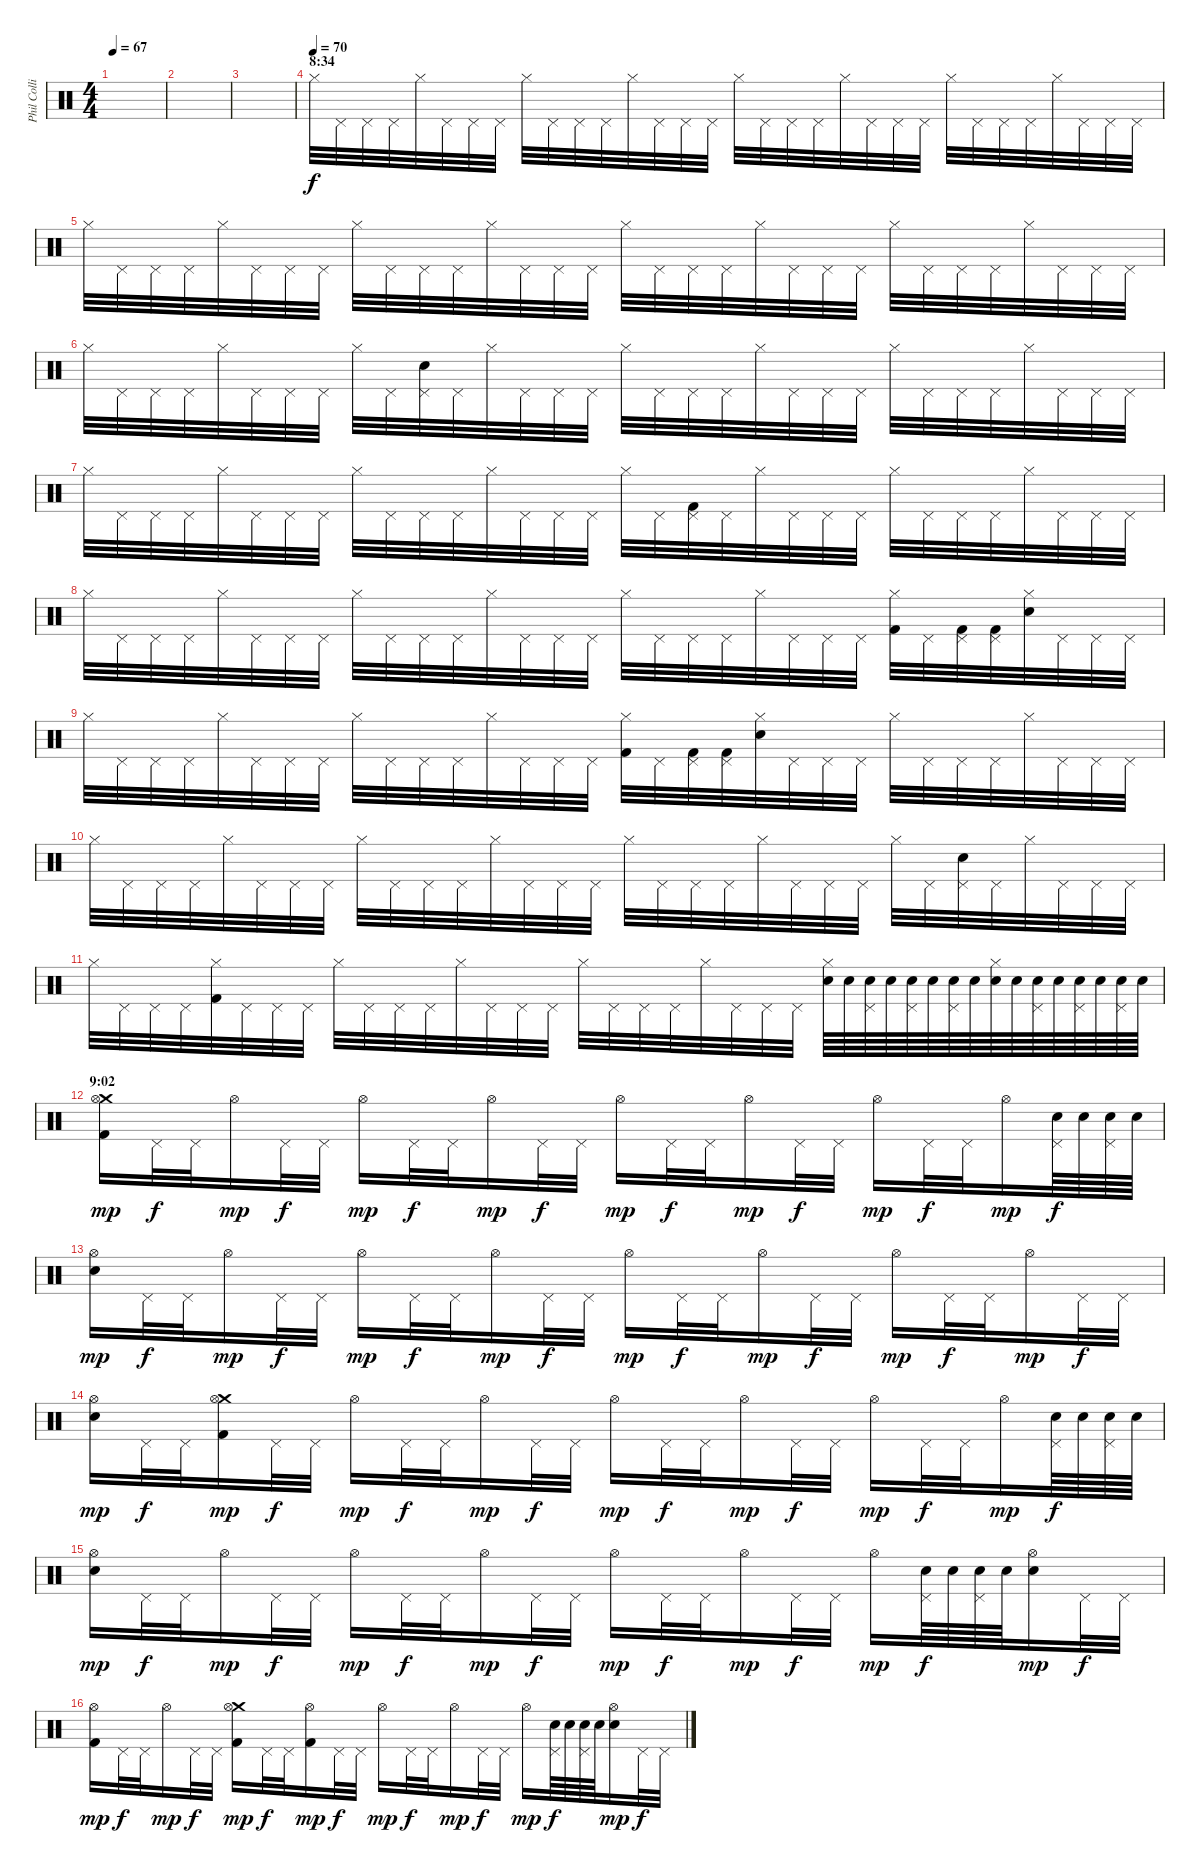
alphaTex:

\track ("Phil Collins (drums)" "Phil Colli") {instrument percussion}
\staff {score}
\articulation defaults
\ts (4 4)
\tempo 67
\clef neutral
\ks c
|
|
|
\section ("" "8:34")
\tempo (70)
"Hi-Hat (closed)".32{volume 13} "Pedal Hi-Hat (hit)".32 "Pedal Hi-Hat (hit)".32 "Pedal Hi-Hat (hit)".32 "Hi-Hat (closed)".32 "Pedal Hi-Hat (hit)".32 "Pedal Hi-Hat (hit)".32 "Pedal Hi-Hat (hit)".32 "Hi-Hat (closed)".32 "Pedal Hi-Hat (hit)".32 "Pedal Hi-Hat (hit)".32 "Pedal Hi-Hat (hit)".32 "Hi-Hat (closed)".32 "Pedal Hi-Hat (hit)".32 "Pedal Hi-Hat (hit)".32 "Pedal Hi-Hat (hit)".32 "Hi-Hat (closed)".32 "Pedal Hi-Hat (hit)".32 "Pedal Hi-Hat (hit)".32 "Pedal Hi-Hat (hit)".32 "Hi-Hat (closed)".32 "Pedal Hi-Hat (hit)".32 "Pedal Hi-Hat (hit)".32 "Pedal Hi-Hat (hit)".32 "Hi-Hat (closed)".32 "Pedal Hi-Hat (hit)".32 "Pedal Hi-Hat (hit)".32 "Pedal Hi-Hat (hit)".32 "Hi-Hat (closed)".32 "Pedal Hi-Hat (hit)".32 "Pedal Hi-Hat (hit)".32 "Pedal Hi-Hat (hit)".32 |
"Hi-Hat (closed)".32 "Pedal Hi-Hat (hit)".32 "Pedal Hi-Hat (hit)".32 "Pedal Hi-Hat (hit)".32 "Hi-Hat (closed)".32 "Pedal Hi-Hat (hit)".32 "Pedal Hi-Hat (hit)".32 "Pedal Hi-Hat (hit)".32 "Hi-Hat (closed)".32 "Pedal Hi-Hat (hit)".32 "Pedal Hi-Hat (hit)".32 "Pedal Hi-Hat (hit)".32 "Hi-Hat (closed)".32 "Pedal Hi-Hat (hit)".32 "Pedal Hi-Hat (hit)".32 "Pedal Hi-Hat (hit)".32 "Hi-Hat (closed)".32 "Pedal Hi-Hat (hit)".32 "Pedal Hi-Hat (hit)".32 "Pedal Hi-Hat (hit)".32 "Hi-Hat (closed)".32 "Pedal Hi-Hat (hit)".32 "Pedal Hi-Hat (hit)".32 "Pedal Hi-Hat (hit)".32 "Hi-Hat (closed)".32 "Pedal Hi-Hat (hit)".32 "Pedal Hi-Hat (hit)".32 "Pedal Hi-Hat (hit)".32 "Hi-Hat (closed)".32 "Pedal Hi-Hat (hit)".32 "Pedal Hi-Hat (hit)".32 "Pedal Hi-Hat (hit)".32 |
"Hi-Hat (closed)".32 "Pedal Hi-Hat (hit)".32 "Pedal Hi-Hat (hit)".32 "Pedal Hi-Hat (hit)".32 "Hi-Hat (closed)".32 "Pedal Hi-Hat (hit)".32 "Pedal Hi-Hat (hit)".32 "Pedal Hi-Hat (hit)".32 "Hi-Hat (closed)".32 "Pedal Hi-Hat (hit)".32 ("Electric Snare (hit)" "Pedal Hi-Hat (hit)").32 "Pedal Hi-Hat (hit)".32 "Hi-Hat (closed)".32 "Pedal Hi-Hat (hit)".32 "Pedal Hi-Hat (hit)".32 "Pedal Hi-Hat (hit)".32 "Hi-Hat (closed)".32 "Pedal Hi-Hat (hit)".32 "Pedal Hi-Hat (hit)".32 "Pedal Hi-Hat (hit)".32 "Hi-Hat (closed)".32 "Pedal Hi-Hat (hit)".32 "Pedal Hi-Hat (hit)".32 "Pedal Hi-Hat (hit)".32 "Hi-Hat (closed)".32 "Pedal Hi-Hat (hit)".32 "Pedal Hi-Hat (hit)".32 "Pedal Hi-Hat (hit)".32 "Hi-Hat (closed)".32 "Pedal Hi-Hat (hit)".32 "Pedal Hi-Hat (hit)".32 "Pedal Hi-Hat (hit)".32 |
"Hi-Hat (closed)".32 "Pedal Hi-Hat (hit)".32 "Pedal Hi-Hat (hit)".32 "Pedal Hi-Hat (hit)".32 "Hi-Hat (closed)".32 "Pedal Hi-Hat (hit)".32 "Pedal Hi-Hat (hit)".32 "Pedal Hi-Hat (hit)".32 "Hi-Hat (closed)".32 "Pedal Hi-Hat (hit)".32 "Pedal Hi-Hat (hit)".32 "Pedal Hi-Hat (hit)".32 "Hi-Hat (closed)".32 "Pedal Hi-Hat (hit)".32 "Pedal Hi-Hat (hit)".32 "Pedal Hi-Hat (hit)".32 "Hi-Hat (closed)".32 "Pedal Hi-Hat (hit)".32 ("Kick (hit) 2" "Pedal Hi-Hat (hit)").32 "Pedal Hi-Hat (hit)".32 "Hi-Hat (closed)".32 "Pedal Hi-Hat (hit)".32 "Pedal Hi-Hat (hit)".32 "Pedal Hi-Hat (hit)".32 "Hi-Hat (closed)".32 "Pedal Hi-Hat (hit)".32 "Pedal Hi-Hat (hit)".32 "Pedal Hi-Hat (hit)".32 "Hi-Hat (closed)".32 "Pedal Hi-Hat (hit)".32 "Pedal Hi-Hat (hit)".32 "Pedal Hi-Hat (hit)".32 |
"Hi-Hat (closed)".32 "Pedal Hi-Hat (hit)".32 "Pedal Hi-Hat (hit)".32 "Pedal Hi-Hat (hit)".32 "Hi-Hat (closed)".32 "Pedal Hi-Hat (hit)".32 "Pedal Hi-Hat (hit)".32 "Pedal Hi-Hat (hit)".32 "Hi-Hat (closed)".32 "Pedal Hi-Hat (hit)".32 "Pedal Hi-Hat (hit)".32 "Pedal Hi-Hat (hit)".32 "Hi-Hat (closed)".32 "Pedal Hi-Hat (hit)".32 "Pedal Hi-Hat (hit)".32 "Pedal Hi-Hat (hit)".32 "Hi-Hat (closed)".32 "Pedal Hi-Hat (hit)".32 "Pedal Hi-Hat (hit)".32 "Pedal Hi-Hat (hit)".32 "Hi-Hat (closed)".32 "Pedal Hi-Hat (hit)".32 "Pedal Hi-Hat (hit)".32 "Pedal Hi-Hat (hit)".32 ("Kick (hit) 2" "Hi-Hat (closed)").32 "Pedal Hi-Hat (hit)".32 ("Kick (hit) 2" "Pedal Hi-Hat (hit)").32 ("Kick (hit) 2" "Pedal Hi-Hat (hit)").32 ("Electric Snare (hit)" "Hi-Hat (closed)").32 "Pedal Hi-Hat (hit)".32 "Pedal Hi-Hat (hit)".32 "Pedal Hi-Hat (hit)".32 |
"Hi-Hat (closed)".32 "Pedal Hi-Hat (hit)".32 "Pedal Hi-Hat (hit)".32 "Pedal Hi-Hat (hit)".32 "Hi-Hat (closed)".32 "Pedal Hi-Hat (hit)".32 "Pedal Hi-Hat (hit)".32 "Pedal Hi-Hat (hit)".32 "Hi-Hat (closed)".32 "Pedal Hi-Hat (hit)".32 "Pedal Hi-Hat (hit)".32 "Pedal Hi-Hat (hit)".32 "Hi-Hat (closed)".32 "Pedal Hi-Hat (hit)".32 "Pedal Hi-Hat (hit)".32 "Pedal Hi-Hat (hit)".32 ("Kick (hit) 2" "Hi-Hat (closed)").32 "Pedal Hi-Hat (hit)".32 ("Kick (hit) 2" "Pedal Hi-Hat (hit)").32 ("Kick (hit) 2" "Pedal Hi-Hat (hit)").32 ("Electric Snare (hit)" "Hi-Hat (closed)").32 "Pedal Hi-Hat (hit)".32 "Pedal Hi-Hat (hit)".32 "Pedal Hi-Hat (hit)".32 "Hi-Hat (closed)".32 "Pedal Hi-Hat (hit)".32 "Pedal Hi-Hat (hit)".32 "Pedal Hi-Hat (hit)".32 "Hi-Hat (closed)".32 "Pedal Hi-Hat (hit)".32 "Pedal Hi-Hat (hit)".32 "Pedal Hi-Hat (hit)".32 |
"Hi-Hat (closed)".32 "Pedal Hi-Hat (hit)".32 "Pedal Hi-Hat (hit)".32 "Pedal Hi-Hat (hit)".32 "Hi-Hat (closed)".32 "Pedal Hi-Hat (hit)".32 "Pedal Hi-Hat (hit)".32 "Pedal Hi-Hat (hit)".32 "Hi-Hat (closed)".32 "Pedal Hi-Hat (hit)".32 "Pedal Hi-Hat (hit)".32 "Pedal Hi-Hat (hit)".32 "Hi-Hat (closed)".32 "Pedal Hi-Hat (hit)".32 "Pedal Hi-Hat (hit)".32 "Pedal Hi-Hat (hit)".32 "Hi-Hat (closed)".32 "Pedal Hi-Hat (hit)".32 "Pedal Hi-Hat (hit)".32 "Pedal Hi-Hat (hit)".32 "Hi-Hat (closed)".32 "Pedal Hi-Hat (hit)".32 "Pedal Hi-Hat (hit)".32 "Pedal Hi-Hat (hit)".32 "Hi-Hat (closed)".32 "Pedal Hi-Hat (hit)".32 ("Electric Snare (hit)" "Pedal Hi-Hat (hit)").32 "Pedal Hi-Hat (hit)".32 "Hi-Hat (closed)".32 "Pedal Hi-Hat (hit)".32 "Pedal Hi-Hat (hit)".32 "Pedal Hi-Hat (hit)".32 |
"Hi-Hat (closed)".32 "Pedal Hi-Hat (hit)".32 "Pedal Hi-Hat (hit)".32 "Pedal Hi-Hat (hit)".32 ("Kick (hit) 2" "Hi-Hat (closed)").32 "Pedal Hi-Hat (hit)".32 "Pedal Hi-Hat (hit)".32 "Pedal Hi-Hat (hit)".32 "Hi-Hat (closed)".32 "Pedal Hi-Hat (hit)".32 "Pedal Hi-Hat (hit)".32 "Pedal Hi-Hat (hit)".32 "Hi-Hat (closed)".32 "Pedal Hi-Hat (hit)".32 "Pedal Hi-Hat (hit)".32 "Pedal Hi-Hat (hit)".32 "Hi-Hat (closed)".32 "Pedal Hi-Hat (hit)".32 "Pedal Hi-Hat (hit)".32 "Pedal Hi-Hat (hit)".32 "Hi-Hat (closed)".32 "Pedal Hi-Hat (hit)".32 "Pedal Hi-Hat (hit)".32 "Pedal Hi-Hat (hit)".32 ("Electric Snare (hit)" "Hi-Hat (closed)").64 "Electric Snare (hit)".64 ("Electric Snare (hit)" "Pedal Hi-Hat (hit)").64 "Electric Snare (hit)".64 ("Electric Snare (hit)" "Pedal Hi-Hat (hit)").64 "Electric Snare (hit)".64 ("Electric Snare (hit)" "Pedal Hi-Hat (hit)").64 "Electric Snare (hit)".64 ("Electric Snare (hit)" "Hi-Hat (closed)").64 "Electric Snare (hit)".64 ("Electric Snare (hit)" "Pedal Hi-Hat (hit)").64 "Electric Snare (hit)".64 ("Electric Snare (hit)" "Pedal Hi-Hat (hit)").64 "Electric Snare (hit)".64 ("Electric Snare (hit)" "Pedal Hi-Hat (hit)").64 "Electric Snare (hit)".64 |
\section ("" "9:02")
("Crash medium (hit)" "Kick (hit) 2" "Hi-Hat (open)").16{dy mp} "Pedal Hi-Hat (hit)".32{dy f} "Pedal Hi-Hat (hit)".32 "Hi-Hat (open)".16{dy mp} "Pedal Hi-Hat (hit)".32{dy f} "Pedal Hi-Hat (hit)".32 "Hi-Hat (open)".16{dy mp} "Pedal Hi-Hat (hit)".32{dy f} "Pedal Hi-Hat (hit)".32 "Hi-Hat (open)".16{dy mp} "Pedal Hi-Hat (hit)".32{dy f} "Pedal Hi-Hat (hit)".32 "Hi-Hat (open)".16{dy mp} "Pedal Hi-Hat (hit)".32{dy f} "Pedal Hi-Hat (hit)".32 "Hi-Hat (open)".16{dy mp} "Pedal Hi-Hat (hit)".32{dy f} "Pedal Hi-Hat (hit)".32 "Hi-Hat (open)".16{dy mp} "Pedal Hi-Hat (hit)".32{dy f} "Pedal Hi-Hat (hit)".32 "Hi-Hat (open)".16{dy mp} ("Electric Snare (hit)" "Pedal Hi-Hat (hit)").64{dy f} "Electric Snare (hit)".64 ("Electric Snare (hit)" "Pedal Hi-Hat (hit)").64 "Electric Snare (hit)".64 |
("Electric Snare (hit)" "Hi-Hat (open)").16{dy mp} "Pedal Hi-Hat (hit)".32{dy f} "Pedal Hi-Hat (hit)".32 "Hi-Hat (open)".16{dy mp} "Pedal Hi-Hat (hit)".32{dy f} "Pedal Hi-Hat (hit)".32 "Hi-Hat (open)".16{dy mp} "Pedal Hi-Hat (hit)".32{dy f} "Pedal Hi-Hat (hit)".32 "Hi-Hat (open)".16{dy mp} "Pedal Hi-Hat (hit)".32{dy f} "Pedal Hi-Hat (hit)".32 "Hi-Hat (open)".16{dy mp} "Pedal Hi-Hat (hit)".32{dy f} "Pedal Hi-Hat (hit)".32 "Hi-Hat (open)".16{dy mp} "Pedal Hi-Hat (hit)".32{dy f} "Pedal Hi-Hat (hit)".32 "Hi-Hat (open)".16{dy mp} "Pedal Hi-Hat (hit)".32{dy f} "Pedal Hi-Hat (hit)".32 "Hi-Hat (open)".16{dy mp} "Pedal Hi-Hat (hit)".32{dy f} "Pedal Hi-Hat (hit)".32 |
("Electric Snare (hit)" "Hi-Hat (open)").16{dy mp} "Pedal Hi-Hat (hit)".32{dy f} "Pedal Hi-Hat (hit)".32 ("Crash medium (hit)" "Hi-Hat (open)" "Kick (hit) 2").16{dy mp} "Pedal Hi-Hat (hit)".32{dy f} "Pedal Hi-Hat (hit)".32 "Hi-Hat (open)".16{dy mp} "Pedal Hi-Hat (hit)".32{dy f} "Pedal Hi-Hat (hit)".32 "Hi-Hat (open)".16{dy mp} "Pedal Hi-Hat (hit)".32{dy f} "Pedal Hi-Hat (hit)".32 "Hi-Hat (open)".16{dy mp} "Pedal Hi-Hat (hit)".32{dy f} "Pedal Hi-Hat (hit)".32 "Hi-Hat (open)".16{dy mp} "Pedal Hi-Hat (hit)".32{dy f} "Pedal Hi-Hat (hit)".32 "Hi-Hat (open)".16{dy mp} "Pedal Hi-Hat (hit)".32{dy f} "Pedal Hi-Hat (hit)".32 "Hi-Hat (open)".16{dy mp} ("Electric Snare (hit)" "Pedal Hi-Hat (hit)").64{dy f} "Electric Snare (hit)".64 ("Electric Snare (hit)" "Pedal Hi-Hat (hit)").64 "Electric Snare (hit)".64 |
("Electric Snare (hit)" "Hi-Hat (open)").16{dy mp} "Pedal Hi-Hat (hit)".32{dy f} "Pedal Hi-Hat (hit)".32 "Hi-Hat (open)".16{dy mp} "Pedal Hi-Hat (hit)".32{dy f} "Pedal Hi-Hat (hit)".32 "Hi-Hat (open)".16{dy mp} "Pedal Hi-Hat (hit)".32{dy f} "Pedal Hi-Hat (hit)".32 "Hi-Hat (open)".16{dy mp} "Pedal Hi-Hat (hit)".32{dy f} "Pedal Hi-Hat (hit)".32 "Hi-Hat (open)".16{dy mp} "Pedal Hi-Hat (hit)".32{dy f} "Pedal Hi-Hat (hit)".32 "Hi-Hat (open)".16{dy mp} "Pedal Hi-Hat (hit)".32{dy f} "Pedal Hi-Hat (hit)".32 "Hi-Hat (open)".16{dy mp} ("Electric Snare (hit)" "Pedal Hi-Hat (hit)").64{dy f} "Electric Snare (hit)".64 ("Electric Snare (hit)" "Pedal Hi-Hat (hit)").64 "Electric Snare (hit)".64 ("Electric Snare (hit)" "Hi-Hat (open)").16{dy mp} "Pedal Hi-Hat (hit)".32{dy f} "Pedal Hi-Hat (hit)".32 |
("Hi-Hat (open)" "Kick (hit) 2").16{dy mp} "Pedal Hi-Hat (hit)".32{dy f} "Pedal Hi-Hat (hit)".32 "Hi-Hat (open)".16{dy mp} "Pedal Hi-Hat (hit)".32{dy f} "Pedal Hi-Hat (hit)".32 ("Crash medium (hit)" "Hi-Hat (open)" "Kick (hit) 2").16{dy mp} "Pedal Hi-Hat (hit)".32{dy f} "Pedal Hi-Hat (hit)".32 ("Hi-Hat (open)" "Kick (hit) 2").16{dy mp} "Pedal Hi-Hat (hit)".32{dy f} "Pedal Hi-Hat (hit)".32 "Hi-Hat (open)".16{dy mp} "Pedal Hi-Hat (hit)".32{dy f} "Pedal Hi-Hat (hit)".32 "Hi-Hat (open)".16{dy mp} "Pedal Hi-Hat (hit)".32{dy f} "Pedal Hi-Hat (hit)".32 "Hi-Hat (open)".16{dy mp} ("Electric Snare (hit)" "Pedal Hi-Hat (hit)").64{dy f} "Electric Snare (hit)".64 ("Electric Snare (hit)" "Pedal Hi-Hat (hit)").64 "Electric Snare (hit)".64 ("Electric Snare (hit)" "Hi-Hat (open)").16{dy mp} "Pedal Hi-Hat (hit)".32{dy f} "Pedal Hi-Hat (hit)".32
